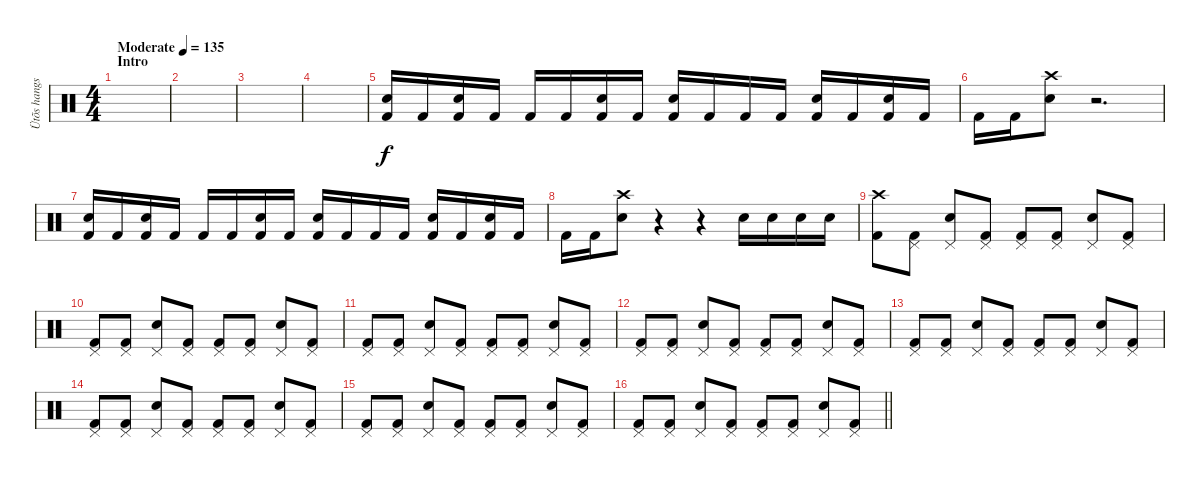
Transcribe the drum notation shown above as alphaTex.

\track ("Ütõs hangszer" "Ütõs hangs") {instrument percussion}
\staff {score}
\articulation defaults
\ts (4 4)
\section ("" "Intro")
\tempo (135 "Moderate")
\clef neutral
\ks c
|
|
|
|
("Electric Snare (hit)" "Kick (hit) 2").16 "Kick (hit) 2".16 ("Electric Snare (hit)" "Kick (hit) 2").16 "Kick (hit) 2".16 "Kick (hit) 2".16 "Kick (hit) 2".16 ("Electric Snare (hit)" "Kick (hit) 2").16 "Kick (hit) 2".16 ("Electric Snare (hit)" "Kick (hit) 2").16 "Kick (hit) 2".16 "Kick (hit) 2".16 "Kick (hit) 2".16 ("Electric Snare (hit)" "Kick (hit) 2").16 "Kick (hit) 2".16 ("Electric Snare (hit)" "Kick (hit) 2").16 "Kick (hit) 2".16 |
"Kick (hit) 2".16 "Kick (hit) 2".16 ("Crash high (hit)" "Electric Snare (hit)").8 r.2{d} |
("Electric Snare (hit)" "Kick (hit) 2").16 "Kick (hit) 2".16 ("Electric Snare (hit)" "Kick (hit) 2").16 "Kick (hit) 2".16 "Kick (hit) 2".16 "Kick (hit) 2".16 ("Electric Snare (hit)" "Kick (hit) 2").16 "Kick (hit) 2".16 ("Electric Snare (hit)" "Kick (hit) 2").16 "Kick (hit) 2".16 "Kick (hit) 2".16 "Kick (hit) 2".16 ("Electric Snare (hit)" "Kick (hit) 2").16 "Kick (hit) 2".16 ("Electric Snare (hit)" "Kick (hit) 2").16 "Kick (hit) 2".16 |
"Kick (hit) 2".16 "Kick (hit) 2".16 ("Crash high (hit)" "Electric Snare (hit)").8 r.4 r.4 "Electric Snare (hit)".16 "Electric Snare (hit)".16 "Electric Snare (hit)".16 "Electric Snare (hit)".16 |
("Crash high (hit)" "Kick (hit) 2").8 ("Pedal Hi-Hat (hit)" "Kick (hit) 2").8 ("Pedal Hi-Hat (hit)" "Electric Snare (hit)").8 ("Pedal Hi-Hat (hit)" "Kick (hit) 2").8 ("Pedal Hi-Hat (hit)" "Kick (hit) 2").8 ("Pedal Hi-Hat (hit)" "Kick (hit) 2").8 ("Pedal Hi-Hat (hit)" "Electric Snare (hit)").8 ("Pedal Hi-Hat (hit)" "Kick (hit) 2").8 |
("Pedal Hi-Hat (hit)" "Kick (hit) 2").8 ("Pedal Hi-Hat (hit)" "Kick (hit) 2").8 ("Pedal Hi-Hat (hit)" "Electric Snare (hit)").8 ("Pedal Hi-Hat (hit)" "Kick (hit) 2").8 ("Pedal Hi-Hat (hit)" "Kick (hit) 2").8 ("Pedal Hi-Hat (hit)" "Kick (hit) 2").8 ("Pedal Hi-Hat (hit)" "Electric Snare (hit)").8 ("Pedal Hi-Hat (hit)" "Kick (hit) 2").8 |
("Pedal Hi-Hat (hit)" "Kick (hit) 2").8 ("Pedal Hi-Hat (hit)" "Kick (hit) 2").8 ("Pedal Hi-Hat (hit)" "Electric Snare (hit)").8 ("Pedal Hi-Hat (hit)" "Kick (hit) 2").8 ("Pedal Hi-Hat (hit)" "Kick (hit) 2").8 ("Pedal Hi-Hat (hit)" "Kick (hit) 2").8 ("Pedal Hi-Hat (hit)" "Electric Snare (hit)").8 ("Pedal Hi-Hat (hit)" "Kick (hit) 2").8 |
("Pedal Hi-Hat (hit)" "Kick (hit) 2").8 ("Pedal Hi-Hat (hit)" "Kick (hit) 2").8 ("Pedal Hi-Hat (hit)" "Electric Snare (hit)").8 ("Pedal Hi-Hat (hit)" "Kick (hit) 2").8 ("Pedal Hi-Hat (hit)" "Kick (hit) 2").8 ("Pedal Hi-Hat (hit)" "Kick (hit) 2").8 ("Pedal Hi-Hat (hit)" "Electric Snare (hit)").8 ("Pedal Hi-Hat (hit)" "Kick (hit) 2").8 |
("Pedal Hi-Hat (hit)" "Kick (hit) 2").8 ("Pedal Hi-Hat (hit)" "Kick (hit) 2").8 ("Pedal Hi-Hat (hit)" "Electric Snare (hit)").8 ("Pedal Hi-Hat (hit)" "Kick (hit) 2").8 ("Pedal Hi-Hat (hit)" "Kick (hit) 2").8 ("Pedal Hi-Hat (hit)" "Kick (hit) 2").8 ("Pedal Hi-Hat (hit)" "Electric Snare (hit)").8 ("Pedal Hi-Hat (hit)" "Kick (hit) 2").8 |
("Pedal Hi-Hat (hit)" "Kick (hit) 2").8 ("Pedal Hi-Hat (hit)" "Kick (hit) 2").8 ("Pedal Hi-Hat (hit)" "Electric Snare (hit)").8 ("Pedal Hi-Hat (hit)" "Kick (hit) 2").8 ("Pedal Hi-Hat (hit)" "Kick (hit) 2").8 ("Pedal Hi-Hat (hit)" "Kick (hit) 2").8 ("Pedal Hi-Hat (hit)" "Electric Snare (hit)").8 ("Pedal Hi-Hat (hit)" "Kick (hit) 2").8 |
("Pedal Hi-Hat (hit)" "Kick (hit) 2").8 ("Pedal Hi-Hat (hit)" "Kick (hit) 2").8 ("Pedal Hi-Hat (hit)" "Electric Snare (hit)").8 ("Pedal Hi-Hat (hit)" "Kick (hit) 2").8 ("Pedal Hi-Hat (hit)" "Kick (hit) 2").8 ("Pedal Hi-Hat (hit)" "Kick (hit) 2").8 ("Pedal Hi-Hat (hit)" "Electric Snare (hit)").8 ("Pedal Hi-Hat (hit)" "Kick (hit) 2").8 |
\barLineRight lightlight
("Pedal Hi-Hat (hit)" "Kick (hit) 2").8 ("Pedal Hi-Hat (hit)" "Kick (hit) 2").8 ("Pedal Hi-Hat (hit)" "Electric Snare (hit)").8 ("Pedal Hi-Hat (hit)" "Kick (hit) 2").8 ("Pedal Hi-Hat (hit)" "Kick (hit) 2").8 ("Pedal Hi-Hat (hit)" "Kick (hit) 2").8 ("Pedal Hi-Hat (hit)" "Electric Snare (hit)").8 ("Pedal Hi-Hat (hit)" "Kick (hit) 2").8
